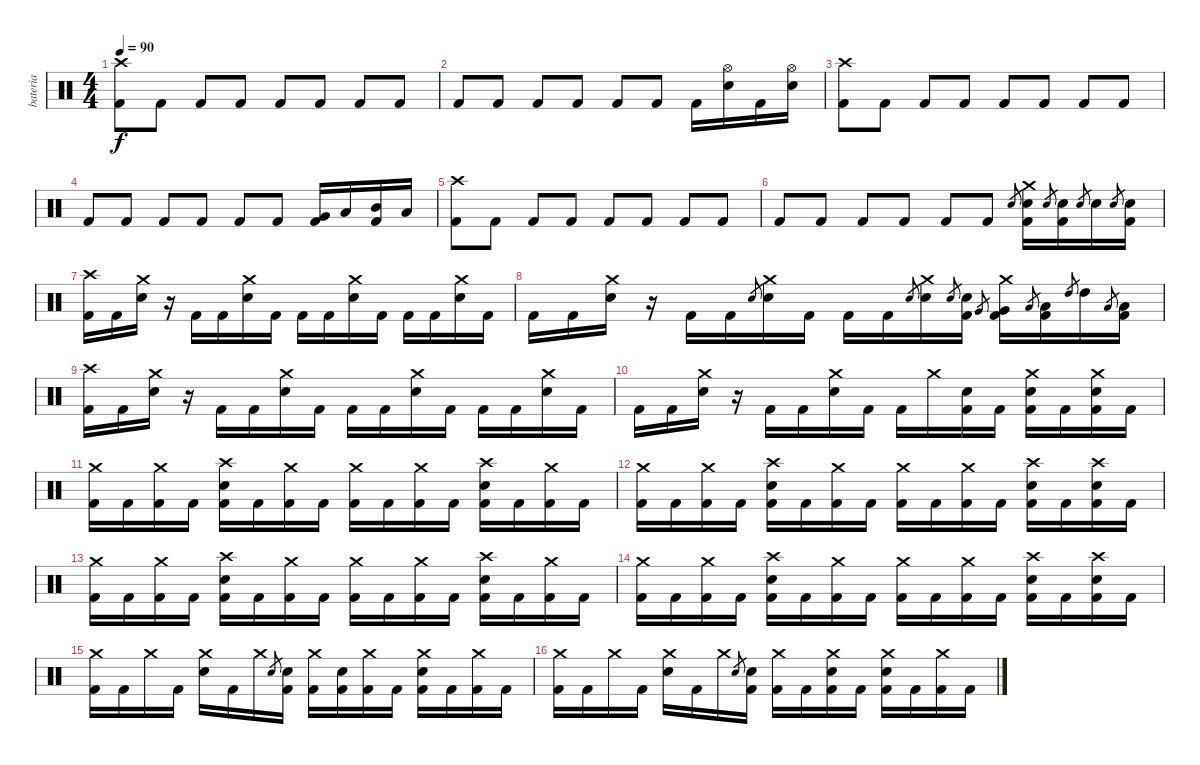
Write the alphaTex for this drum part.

\track ("bateria" "bateria") {instrument percussion}
\staff {score}
\articulation defaults
\ts (4 4)
\tempo 90
\clef neutral
\ks c
("Crash high (hit)" "Kick (hit) 2").8{dy f} "Kick (hit) 2".8 "Kick (hit) 2".8 "Kick (hit) 2".8 "Kick (hit) 2".8 "Kick (hit) 2".8 "Kick (hit) 2".8 "Kick (hit) 2".8 |
"Kick (hit) 2".8 "Kick (hit) 2".8 "Kick (hit) 2".8 "Kick (hit) 2".8 "Kick (hit) 2".8 "Kick (hit) 2".8 "Kick (hit) 2".16 ("Hi-Hat (open)" "Electric Snare (hit)").16 "Kick (hit) 2".16 ("Hi-Hat (open)" "Electric Snare (hit)").16 |
("Crash high (hit)" "Kick (hit) 2").8 "Kick (hit) 2".8 "Kick (hit) 2".8 "Kick (hit) 2".8 "Kick (hit) 2".8 "Kick (hit) 2".8 "Kick (hit) 2".8 "Kick (hit) 2".8 |
"Kick (hit) 2".8 "Kick (hit) 2".8 "Kick (hit) 2".8 "Kick (hit) 2".8 "Kick (hit) 2".8 "Kick (hit) 2".8 ("Very Low Tom (hit)" "Kick (hit) 2").16 "Low Tom (hit)".16 ("Mid Tom (hit)" "Kick (hit) 2").16 "Low Tom (hit)".16 |
("Crash high (hit)" "Kick (hit) 2").8 "Kick (hit) 2".8 "Kick (hit) 2".8 "Kick (hit) 2".8 "Kick (hit) 2".8 "Kick (hit) 2".8 "Kick (hit) 2".8 "Kick (hit) 2".8 |
"Kick (hit) 2".8 "Kick (hit) 2".8 "Kick (hit) 2".8 "Kick (hit) 2".8 "Kick (hit) 2".8 "Kick (hit) 2".8 "Electric Snare (hit)".8{gr} ("Crash medium (hit)" "Electric Snare (hit)" "Kick (hit) 2").16 "Electric Snare (hit)".8{gr} ("Electric Snare (hit)" "Kick (hit) 2").16 "Electric Snare (hit)".8{gr} "Electric Snare (hit)".16 "Electric Snare (hit)".8{gr} ("Electric Snare (hit)" "Kick (hit) 2").16 |
("Crash high (hit)" "Kick (hit) 2").16 "Kick (hit) 2".16 ("Crash medium (hit)" "Electric Snare (hit)").16 r.16 "Kick (hit) 2".16 "Kick (hit) 2".16 ("Crash medium (hit)" "Electric Snare (hit)").16 "Kick (hit) 2".16 "Kick (hit) 2".16 "Kick (hit) 2".16 ("Crash medium (hit)" "Electric Snare (hit)").16 "Kick (hit) 2".16 "Kick (hit) 2".16 "Kick (hit) 2".16 ("Crash medium (hit)" "Electric Snare (hit)").16 "Kick (hit) 2".16 |
"Kick (hit) 2".16 "Kick (hit) 2".16 ("Crash medium (hit)" "Electric Snare (hit)").16 r.16 "Kick (hit) 2".16 "Kick (hit) 2".16 "Electric Snare (hit)".8{gr} ("Crash medium (hit)" "Electric Snare (hit)").16 "Kick (hit) 2".16 "Kick (hit) 2".16 "Kick (hit) 2".16 "Electric Snare (hit)".8{gr} ("Crash medium (hit)" "Electric Snare (hit)").16 "Electric Snare (hit)".8{gr} ("Electric Snare (hit)" "Kick (hit) 2").16 "Very Low Tom (hit)".8{gr} ("Crash medium (hit)" "Very Low Tom (hit)" "Kick (hit) 2").16 "Low Tom (hit)".8{gr} ("Low Tom (hit)" "Kick (hit) 2").16 "High Tom (hit)".8{gr} "High Tom (hit)".16 "Low Tom (hit)".8{gr} ("Low Tom (hit)" "Kick (hit) 2").16 |
("Crash high (hit)" "Kick (hit) 2").16 "Kick (hit) 2".16 ("Crash medium (hit)" "Electric Snare (hit)").16 r.16 "Kick (hit) 2".16 "Kick (hit) 2".16 ("Crash medium (hit)" "Electric Snare (hit)").16 "Kick (hit) 2".16 "Kick (hit) 2".16 "Kick (hit) 2".16 ("Crash medium (hit)" "Electric Snare (hit)").16 "Kick (hit) 2".16 "Kick (hit) 2".16 "Kick (hit) 2".16 ("Crash medium (hit)" "Electric Snare (hit)").16 "Kick (hit) 2".16 |
"Kick (hit) 2".16 "Kick (hit) 2".16 ("Crash medium (hit)" "Electric Snare (hit)").16 r.16 "Kick (hit) 2".16 "Kick (hit) 2".16 ("Crash medium (hit)" "Electric Snare (hit)").16 "Kick (hit) 2".16 "Kick (hit) 2".16 "Crash medium (hit)".16 ("Electric Snare (hit)" "Kick (hit) 2").16 "Kick (hit) 2".16 ("Crash medium (hit)" "Electric Snare (hit)" "Kick (hit) 2").16 "Kick (hit) 2".16 ("Crash medium (hit)" "Electric Snare (hit)" "Kick (hit) 2").16 "Kick (hit) 2".16 |
("Crash medium (hit)" "Kick (hit) 2").16 "Kick (hit) 2".16 ("Crash medium (hit)" "Kick (hit) 2").16 "Kick (hit) 2".16 ("Crash high (hit)" "Electric Snare (hit)" "Kick (hit) 2").16 "Kick (hit) 2".16 ("Crash medium (hit)" "Kick (hit) 2").16 "Kick (hit) 2".16 ("Crash medium (hit)" "Kick (hit) 2").16 "Kick (hit) 2".16 ("Crash medium (hit)" "Kick (hit) 2").16 "Kick (hit) 2".16 ("Crash high (hit)" "Electric Snare (hit)" "Kick (hit) 2").16 "Kick (hit) 2".16 ("Crash medium (hit)" "Kick (hit) 2").16 "Kick (hit) 2".16 |
("Crash medium (hit)" "Kick (hit) 2").16 "Kick (hit) 2".16 ("Crash medium (hit)" "Kick (hit) 2").16 "Kick (hit) 2".16 ("Crash high (hit)" "Electric Snare (hit)" "Kick (hit) 2").16 "Kick (hit) 2".16 ("Crash medium (hit)" "Kick (hit) 2").16 "Kick (hit) 2".16 ("Crash medium (hit)" "Kick (hit) 2").16 "Kick (hit) 2".16 ("Crash medium (hit)" "Kick (hit) 2").16 "Kick (hit) 2".16 ("Crash high (hit)" "Electric Snare (hit)" "Kick (hit) 2").16 "Kick (hit) 2".16 ("Crash high (hit)" "Electric Snare (hit)" "Kick (hit) 2").16 "Kick (hit) 2".16 |
("Crash medium (hit)" "Kick (hit) 2").16 "Kick (hit) 2".16 ("Crash medium (hit)" "Kick (hit) 2").16 "Kick (hit) 2".16 ("Crash high (hit)" "Electric Snare (hit)" "Kick (hit) 2").16 "Kick (hit) 2".16 ("Crash medium (hit)" "Kick (hit) 2").16 "Kick (hit) 2".16 ("Crash medium (hit)" "Kick (hit) 2").16 "Kick (hit) 2".16 ("Crash medium (hit)" "Kick (hit) 2").16 "Kick (hit) 2".16 ("Crash high (hit)" "Electric Snare (hit)" "Kick (hit) 2").16 "Kick (hit) 2".16 ("Crash medium (hit)" "Kick (hit) 2").16 "Kick (hit) 2".16 |
("Crash medium (hit)" "Kick (hit) 2").16 "Kick (hit) 2".16 ("Crash medium (hit)" "Kick (hit) 2").16 "Kick (hit) 2".16 ("Crash high (hit)" "Electric Snare (hit)" "Kick (hit) 2").16 "Kick (hit) 2".16 ("Crash medium (hit)" "Kick (hit) 2").16 "Kick (hit) 2".16 ("Crash medium (hit)" "Kick (hit) 2").16 "Kick (hit) 2".16 ("Crash medium (hit)" "Kick (hit) 2").16 "Kick (hit) 2".16 ("Crash high (hit)" "Electric Snare (hit)" "Kick (hit) 2").16 "Kick (hit) 2".16 ("Crash high (hit)" "Electric Snare (hit)" "Kick (hit) 2").16 "Kick (hit) 2".16 |
("Crash medium (hit)" "Kick (hit) 2").16 "Kick (hit) 2".16 "Crash medium (hit)".16 "Kick (hit) 2".16 ("Crash medium (hit)" "Electric Snare (hit)").16 "Kick (hit) 2".16 "Crash medium (hit)".16 "Electric Snare (hit)".8{gr} ("Electric Snare (hit)" "Kick (hit) 2").16 ("Crash medium (hit)" "Kick (hit) 2").16 ("Electric Snare (hit)" "Kick (hit) 2").16 ("Crash medium (hit)" "Kick (hit) 2").16 "Kick (hit) 2".16 ("Crash medium (hit)" "Electric Snare (hit)" "Kick (hit) 2").16 "Kick (hit) 2".16 ("Crash medium (hit)" "Kick (hit) 2").16 "Kick (hit) 2".16 |
("Crash medium (hit)" "Kick (hit) 2").16 "Kick (hit) 2".16 "Crash medium (hit)".16 "Kick (hit) 2".16 ("Crash medium (hit)" "Electric Snare (hit)").16 "Kick (hit) 2".16 "Crash medium (hit)".16 "Electric Snare (hit)".8{gr} ("Electric Snare (hit)" "Kick (hit) 2").16 ("Crash medium (hit)" "Kick (hit) 2").16 "Kick (hit) 2".16 ("Crash medium (hit)" "Electric Snare (hit)" "Kick (hit) 2").16 "Kick (hit) 2".16 ("Crash medium (hit)" "Electric Snare (hit)" "Kick (hit) 2").16 "Kick (hit) 2".16 ("Crash medium (hit)" "Kick (hit) 2").16 "Kick (hit) 2".16
